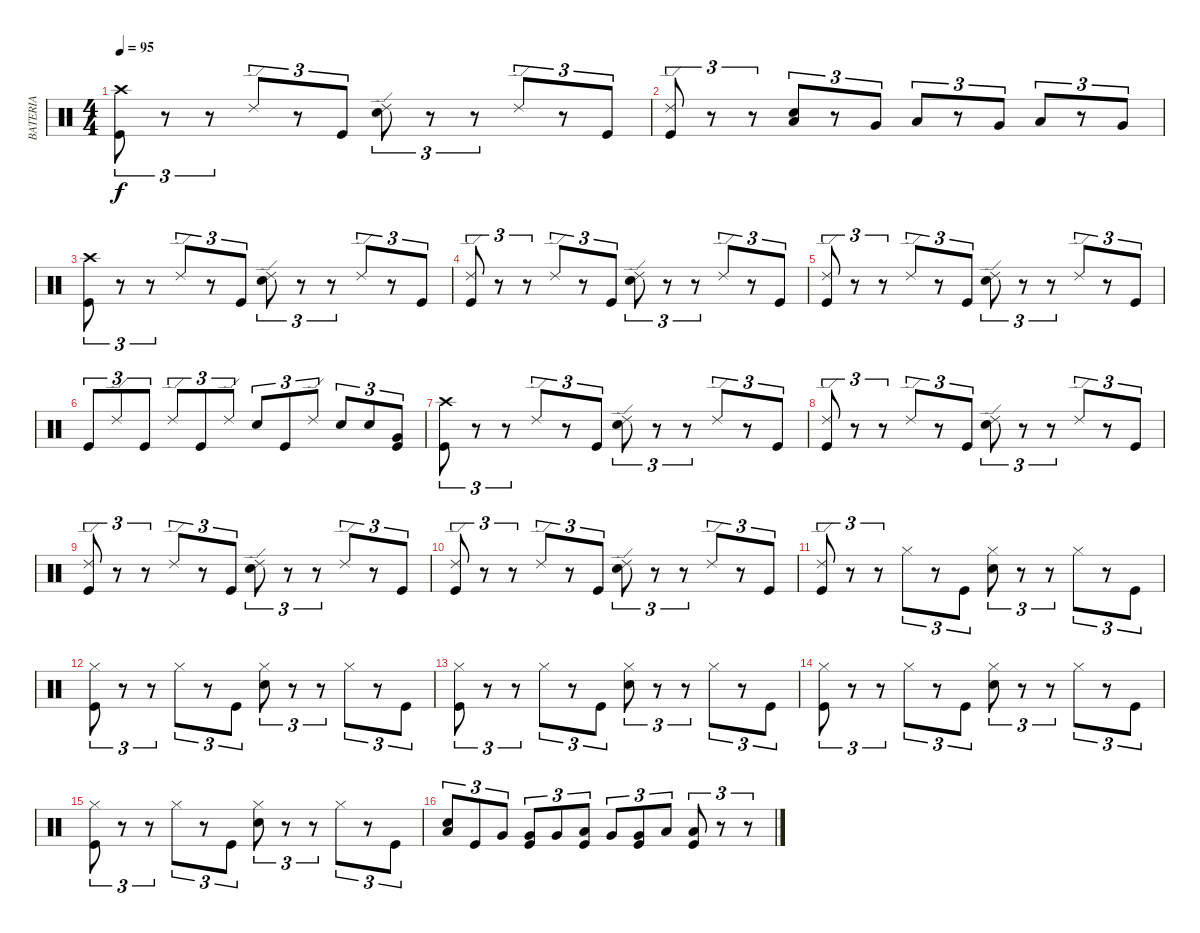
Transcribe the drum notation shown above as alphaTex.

\track ("BATERIA" "BATERIA") {instrument percussion}
\staff {score}
\articulation defaults
\ts (4 4)
\tempo 95
\clef neutral
\ks c
("Crash high (hit)" "Kick (hit)").8{tu (3 2) dy f} r.8{tu (3 2)} r.8{tu (3 2)} "Ride (edge) 2".8{tu (3 2)} r.8{tu (3 2)} "Kick (hit)".8{tu (3 2)} ("Ride (edge) 2" "Snare (hit) 2").8{tu (3 2)} r.8{tu (3 2)} r.8{tu (3 2)} "Ride (edge) 2".8{tu (3 2)} r.8{tu (3 2)} "Kick (hit)".8{tu (3 2)} |
("Ride (edge) 2" "Kick (hit)").8{tu (3 2)} r.8{tu (3 2)} r.8{tu (3 2)} ("Low Floor Tom (hit)" "Snare (hit) 2").8{tu (3 2)} r.8{tu (3 2)} "Very Low Tom (hit)".8{tu (3 2)} "Low Floor Tom (hit)".8{tu (3 2)} r.8{tu (3 2)} "Very Low Tom (hit)".8{tu (3 2)} "Low Floor Tom (hit)".8{tu (3 2)} r.8{tu (3 2)} "Very Low Tom (hit)".8{tu (3 2)} |
("Crash high (hit)" "Kick (hit)").8{tu (3 2)} r.8{tu (3 2)} r.8{tu (3 2)} "Ride (edge) 2".8{tu (3 2)} r.8{tu (3 2)} "Kick (hit)".8{tu (3 2)} ("Ride (edge) 2" "Snare (hit) 2").8{tu (3 2)} r.8{tu (3 2)} r.8{tu (3 2)} "Ride (edge) 2".8{tu (3 2)} r.8{tu (3 2)} "Kick (hit)".8{tu (3 2)} |
("Ride (edge) 2" "Kick (hit)").8{tu (3 2)} r.8{tu (3 2)} r.8{tu (3 2)} "Ride (edge) 2".8{tu (3 2)} r.8{tu (3 2)} "Kick (hit)".8{tu (3 2)} ("Ride (edge) 2" "Snare (hit) 2").8{tu (3 2)} r.8{tu (3 2)} r.8{tu (3 2)} "Ride (edge) 2".8{tu (3 2)} r.8{tu (3 2)} "Kick (hit)".8{tu (3 2)} |
("Ride (edge) 2" "Kick (hit)").8{tu (3 2)} r.8{tu (3 2)} r.8{tu (3 2)} "Ride (edge) 2".8{tu (3 2)} r.8{tu (3 2)} "Kick (hit)".8{tu (3 2)} ("Ride (edge) 2" "Snare (hit) 2").8{tu (3 2)} r.8{tu (3 2)} r.8{tu (3 2)} "Ride (edge) 2".8{tu (3 2)} r.8{tu (3 2)} "Kick (hit)".8{tu (3 2)} |
"Kick (hit)".8{tu (3 2)} "Ride (edge) 2".8{tu (3 2)} "Kick (hit)".8{tu (3 2)} "Ride (edge) 2".8{tu (3 2)} "Kick (hit)".8{tu (3 2)} "Ride (edge) 2".8{tu (3 2)} "Snare (hit) 2".8{tu (3 2)} "Kick (hit)".8{tu (3 2)} "Ride (edge) 2".8{tu (3 2)} "Snare (hit) 2".8{tu (3 2)} "Snare (hit) 2".8{tu (3 2)} ("Very Low Tom (hit)" "Kick (hit)").8{tu (3 2)} |
("Crash high (hit)" "Kick (hit)").8{tu (3 2)} r.8{tu (3 2)} r.8{tu (3 2)} "Ride (edge) 2".8{tu (3 2)} r.8{tu (3 2)} "Kick (hit)".8{tu (3 2)} ("Ride (edge) 2" "Snare (hit) 2").8{tu (3 2)} r.8{tu (3 2)} r.8{tu (3 2)} "Ride (edge) 2".8{tu (3 2)} r.8{tu (3 2)} "Kick (hit)".8{tu (3 2)} |
("Ride (edge) 2" "Kick (hit)").8{tu (3 2)} r.8{tu (3 2)} r.8{tu (3 2)} "Ride (edge) 2".8{tu (3 2)} r.8{tu (3 2)} "Kick (hit)".8{tu (3 2)} ("Ride (edge) 2" "Snare (hit) 2").8{tu (3 2)} r.8{tu (3 2)} r.8{tu (3 2)} "Ride (edge) 2".8{tu (3 2)} r.8{tu (3 2)} "Kick (hit)".8{tu (3 2)} |
("Ride (edge) 2" "Kick (hit)").8{tu (3 2)} r.8{tu (3 2)} r.8{tu (3 2)} "Ride (edge) 2".8{tu (3 2)} r.8{tu (3 2)} "Kick (hit)".8{tu (3 2)} ("Ride (edge) 2" "Snare (hit) 2").8{tu (3 2)} r.8{tu (3 2)} r.8{tu (3 2)} "Ride (edge) 2".8{tu (3 2)} r.8{tu (3 2)} "Kick (hit)".8{tu (3 2)} |
("Ride (edge) 2" "Kick (hit)").8{tu (3 2)} r.8{tu (3 2)} r.8{tu (3 2)} "Ride (edge) 2".8{tu (3 2)} r.8{tu (3 2)} "Kick (hit)".8{tu (3 2)} ("Ride (edge) 2" "Snare (hit) 2").8{tu (3 2)} r.8{tu (3 2)} r.8{tu (3 2)} "Ride (edge) 2".8{tu (3 2)} r.8{tu (3 2)} "Kick (hit)".8{tu (3 2)} |
("Ride (edge) 2" "Kick (hit)").8{tu (3 2)} r.8{tu (3 2)} r.8{tu (3 2)} "Hi-Hat (closed)".8{tu (3 2)} r.8{tu (3 2)} "Kick (hit)".8{tu (3 2)} ("Hi-Hat (closed)" "Snare (hit) 2").8{tu (3 2)} r.8{tu (3 2)} r.8{tu (3 2)} "Hi-Hat (closed)".8{tu (3 2)} r.8{tu (3 2)} "Kick (hit)".8{tu (3 2)} |
("Hi-Hat (closed)" "Kick (hit)").8{tu (3 2)} r.8{tu (3 2)} r.8{tu (3 2)} "Hi-Hat (closed)".8{tu (3 2)} r.8{tu (3 2)} "Kick (hit)".8{tu (3 2)} ("Hi-Hat (closed)" "Snare (hit) 2").8{tu (3 2)} r.8{tu (3 2)} r.8{tu (3 2)} "Hi-Hat (closed)".8{tu (3 2)} r.8{tu (3 2)} "Kick (hit)".8{tu (3 2)} |
("Hi-Hat (closed)" "Kick (hit)").8{tu (3 2)} r.8{tu (3 2)} r.8{tu (3 2)} "Hi-Hat (closed)".8{tu (3 2)} r.8{tu (3 2)} "Kick (hit)".8{tu (3 2)} ("Hi-Hat (closed)" "Snare (hit) 2").8{tu (3 2)} r.8{tu (3 2)} r.8{tu (3 2)} "Hi-Hat (closed)".8{tu (3 2)} r.8{tu (3 2)} "Kick (hit)".8{tu (3 2)} |
("Hi-Hat (closed)" "Kick (hit)").8{tu (3 2)} r.8{tu (3 2)} r.8{tu (3 2)} "Hi-Hat (closed)".8{tu (3 2)} r.8{tu (3 2)} "Kick (hit)".8{tu (3 2)} ("Hi-Hat (closed)" "Snare (hit) 2").8{tu (3 2)} r.8{tu (3 2)} r.8{tu (3 2)} "Hi-Hat (closed)".8{tu (3 2)} r.8{tu (3 2)} "Kick (hit)".8{tu (3 2)} |
("Hi-Hat (closed)" "Kick (hit)").8{tu (3 2)} r.8{tu (3 2)} r.8{tu (3 2)} "Hi-Hat (closed)".8{tu (3 2)} r.8{tu (3 2)} "Kick (hit)".8{tu (3 2)} ("Hi-Hat (closed)" "Snare (hit) 2").8{tu (3 2)} r.8{tu (3 2)} r.8{tu (3 2)} "Hi-Hat (closed)".8{tu (3 2)} r.8{tu (3 2)} "Kick (hit)".8{tu (3 2)} |
("Low Tom (hit)" "Snare (hit) 2").8{tu (3 2)} "Kick (hit)".8{tu (3 2)} "Very Low Tom (hit)".8{tu (3 2)} ("Very Low Tom (hit)" "Kick (hit)").8{tu (3 2)} "Very Low Tom (hit)".8{tu (3 2)} ("Low Tom (hit)" "Kick (hit)").8{tu (3 2)} "Very Low Tom (hit)".8{tu (3 2)} ("Very Low Tom (hit)" "Kick (hit)").8{tu (3 2)} "Low Floor Tom (hit)".8{tu (3 2)} ("Low Floor Tom (hit)" "Kick (hit)").8{tu (3 2)} r.8{tu (3 2)} r.8{tu (3 2)}
